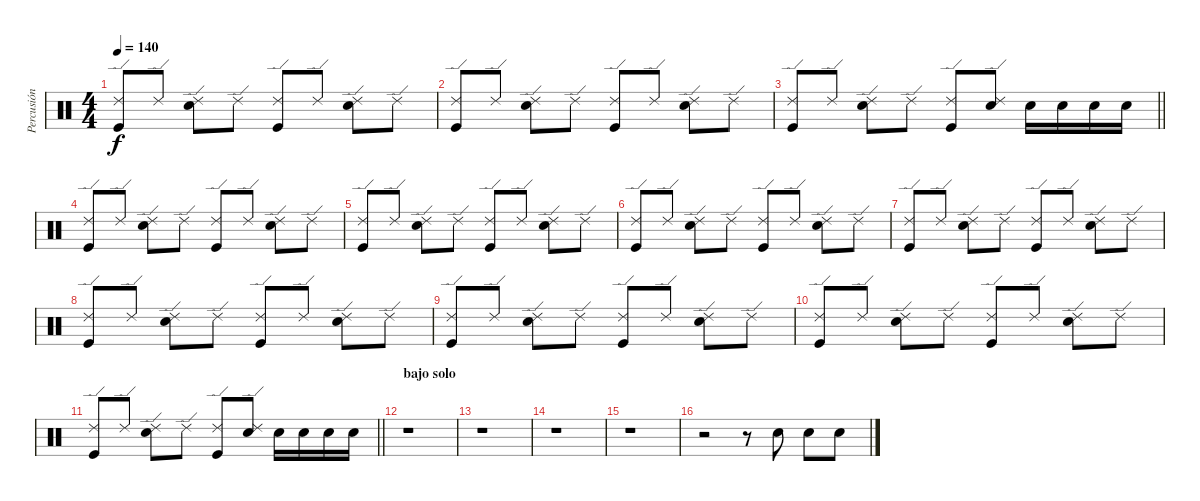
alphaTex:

\track ("Percusión" "Percusión") {instrument percussion}
\staff {score}
\articulation defaults
\ts (4 4)
\tempo 140
\clef neutral
\ks c
("Ride (edge) 2" "Kick (hit)").8{dy f} "Ride (edge) 2".8 ("Ride (edge) 2" "Snare (hit) 2").8 "Ride (edge) 2".8 ("Ride (edge) 2" "Kick (hit)").8 "Ride (edge) 2".8 ("Ride (edge) 2" "Snare (hit) 2").8 "Ride (edge) 2".8 |
("Ride (edge) 2" "Kick (hit)").8 "Ride (edge) 2".8 ("Ride (edge) 2" "Snare (hit) 2").8 "Ride (edge) 2".8 ("Ride (edge) 2" "Kick (hit)").8 "Ride (edge) 2".8 ("Ride (edge) 2" "Snare (hit) 2").8 "Ride (edge) 2".8 |
\barLineRight lightlight
("Ride (edge) 2" "Kick (hit)").8 "Ride (edge) 2".8 ("Ride (edge) 2" "Snare (hit) 2").8 "Ride (edge) 2".8 ("Ride (edge) 2" "Kick (hit)").8 ("Ride (edge) 2" "Snare (hit) 2").8 "Snare (hit) 2".16 "Snare (hit) 2".16 "Snare (hit) 2".16 "Snare (hit) 2".16 |
("Ride (edge) 2" "Kick (hit)").8 "Ride (edge) 2".8 ("Ride (edge) 2" "Snare (hit) 2").8 "Ride (edge) 2".8 ("Ride (edge) 2" "Kick (hit)").8 "Ride (edge) 2".8 ("Ride (edge) 2" "Snare (hit) 2").8 "Ride (edge) 2".8 |
("Ride (edge) 2" "Kick (hit)").8 "Ride (edge) 2".8 ("Ride (edge) 2" "Snare (hit) 2").8 "Ride (edge) 2".8 ("Ride (edge) 2" "Kick (hit)").8 "Ride (edge) 2".8 ("Ride (edge) 2" "Snare (hit) 2").8 "Ride (edge) 2".8 |
("Ride (edge) 2" "Kick (hit)").8 "Ride (edge) 2".8 ("Ride (edge) 2" "Snare (hit) 2").8 "Ride (edge) 2".8 ("Ride (edge) 2" "Kick (hit)").8 "Ride (edge) 2".8 ("Ride (edge) 2" "Snare (hit) 2").8 "Ride (edge) 2".8 |
("Ride (edge) 2" "Kick (hit)").8 "Ride (edge) 2".8 ("Ride (edge) 2" "Snare (hit) 2").8 "Ride (edge) 2".8 ("Ride (edge) 2" "Kick (hit)").8 "Ride (edge) 2".8 ("Ride (edge) 2" "Snare (hit) 2").8 "Ride (edge) 2".8 |
("Ride (edge) 2" "Kick (hit)").8 "Ride (edge) 2".8 ("Ride (edge) 2" "Snare (hit) 2").8 "Ride (edge) 2".8 ("Ride (edge) 2" "Kick (hit)").8 "Ride (edge) 2".8 ("Ride (edge) 2" "Snare (hit) 2").8 "Ride (edge) 2".8 |
("Ride (edge) 2" "Kick (hit)").8 "Ride (edge) 2".8 ("Ride (edge) 2" "Snare (hit) 2").8 "Ride (edge) 2".8 ("Ride (edge) 2" "Kick (hit)").8 "Ride (edge) 2".8 ("Ride (edge) 2" "Snare (hit) 2").8 "Ride (edge) 2".8 |
("Ride (edge) 2" "Kick (hit)").8 "Ride (edge) 2".8 ("Ride (edge) 2" "Snare (hit) 2").8 "Ride (edge) 2".8 ("Ride (edge) 2" "Kick (hit)").8 "Ride (edge) 2".8 ("Ride (edge) 2" "Snare (hit) 2").8 "Ride (edge) 2".8 |
\barLineRight lightlight
("Ride (edge) 2" "Kick (hit)").8 "Ride (edge) 2".8 ("Ride (edge) 2" "Snare (hit) 2").8 "Ride (edge) 2".8 ("Ride (edge) 2" "Kick (hit)").8 ("Ride (edge) 2" "Snare (hit) 2").8 "Snare (hit) 2".16 "Snare (hit) 2".16 "Snare (hit) 2".16 "Snare (hit) 2".16 |
\section ("" "bajo solo")
r.1 |
r.1 |
r.1 |
r.1 |
r.2 r.8 "Snare (hit) 2".8 "Snare (hit) 2".8 "Snare (hit) 2".8
